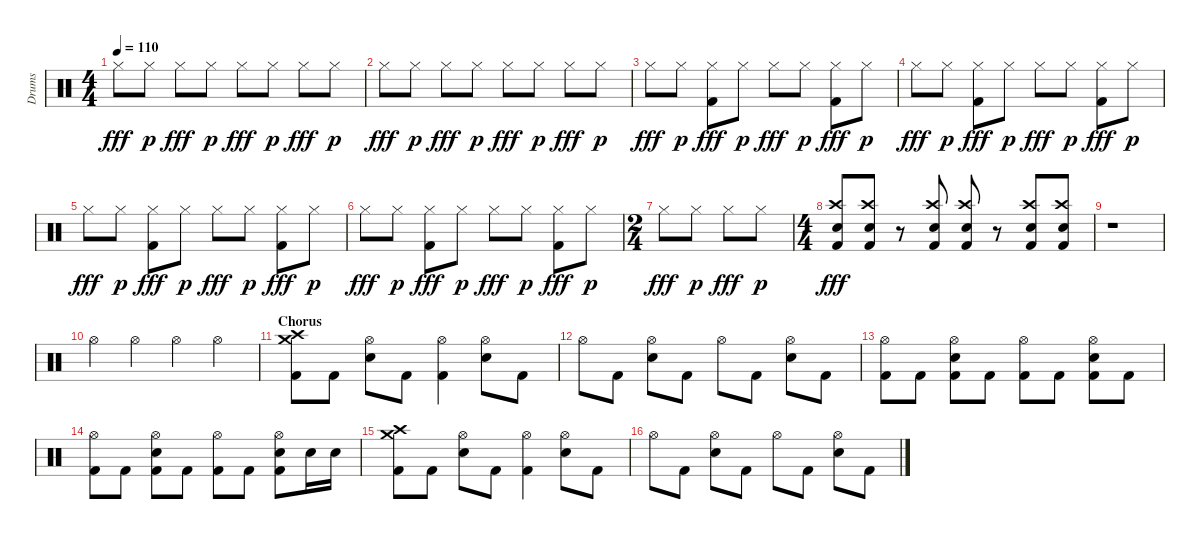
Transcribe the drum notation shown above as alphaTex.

\track ("Drums" "Drums") {instrument percussion}
\staff {score}
\articulation defaults
\ts (4 4)
\tempo 110
\clef neutral
\ks c "Hi-Hat (closed)".8{dy fff} "Hi-Hat (closed)".8{dy p} "Hi-Hat (closed)".8{dy fff} "Hi-Hat (closed)".8{dy p} "Hi-Hat (closed)".8{dy fff} "Hi-Hat (closed)".8{dy p} "Hi-Hat (closed)".8{dy fff} "Hi-Hat (closed)".8{dy p}
|
"Hi-Hat (closed)".8{dy fff} "Hi-Hat (closed)".8{dy p} "Hi-Hat (closed)".8{dy fff} "Hi-Hat (closed)".8{dy p} "Hi-Hat (closed)".8{dy fff} "Hi-Hat (closed)".8{dy p} "Hi-Hat (closed)".8{dy fff} "Hi-Hat (closed)".8{dy p} |
"Hi-Hat (closed)".8{dy fff} "Hi-Hat (closed)".8{dy p} ("Hi-Hat (closed)" "Kick (hit) 2").8{dy fff} "Hi-Hat (closed)".8{dy p} "Hi-Hat (closed)".8{dy fff} "Hi-Hat (closed)".8{dy p} ("Hi-Hat (closed)" "Kick (hit) 2").8{dy fff} "Hi-Hat (closed)".8{dy p} |
"Hi-Hat (closed)".8{dy fff} "Hi-Hat (closed)".8{dy p} ("Hi-Hat (closed)" "Kick (hit) 2").8{dy fff} "Hi-Hat (closed)".8{dy p} "Hi-Hat (closed)".8{dy fff} "Hi-Hat (closed)".8{dy p} ("Hi-Hat (closed)" "Kick (hit) 2").8{dy fff} "Hi-Hat (closed)".8{dy p} |
"Hi-Hat (closed)".8{dy fff} "Hi-Hat (closed)".8{dy p} ("Hi-Hat (closed)" "Kick (hit) 2").8{dy fff} "Hi-Hat (closed)".8{dy p} "Hi-Hat (closed)".8{dy fff} "Hi-Hat (closed)".8{dy p} ("Hi-Hat (closed)" "Kick (hit) 2").8{dy fff} "Hi-Hat (closed)".8{dy p} |
"Hi-Hat (closed)".8{dy fff} "Hi-Hat (closed)".8{dy p} ("Hi-Hat (closed)" "Kick (hit) 2").8{dy fff} "Hi-Hat (closed)".8{dy p} "Hi-Hat (closed)".8{dy fff} "Hi-Hat (closed)".8{dy p} ("Hi-Hat (closed)" "Kick (hit) 2").8{dy fff} "Hi-Hat (closed)".8{dy p} |
\ts (2 4)
"Hi-Hat (closed)".8{dy fff} "Hi-Hat (closed)".8{dy p} "Hi-Hat (closed)".8{dy fff} "Hi-Hat (closed)".8{dy p} |
\ts (4 4)
("Crash high (hit)" "Electric Snare (hit)" "Kick (hit) 2").8{dy fff} ("Crash high (hit)" "Electric Snare (hit)" "Kick (hit) 2").8 r.8 ("Crash high (hit)" "Electric Snare (hit)" "Kick (hit) 2").8 ("Crash high (hit)" "Electric Snare (hit)" "Kick (hit) 2").8 r.8 ("Crash high (hit)" "Electric Snare (hit)" "Kick (hit) 2").8 ("Crash high (hit)" "Electric Snare (hit)" "Kick (hit) 2").8 |
r.1 |
"Hi-Hat (open)".4 "Hi-Hat (open)".4 "Hi-Hat (open)".4 "Hi-Hat (open)".4 |
\section ("" "Chorus")
("Crash high (hit)" "Crash medium (hit)" "Kick (hit) 2").8 "Kick (hit) 2".8 ("Hi-Hat (open)" "Electric Snare (hit)").8 "Kick (hit) 2".8 ("Hi-Hat (open)" "Kick (hit) 2").4 ("Hi-Hat (open)" "Electric Snare (hit)").8 "Kick (hit) 2".8 |
"Hi-Hat (open)".8 "Kick (hit) 2".8 ("Hi-Hat (open)" "Electric Snare (hit)").8 "Kick (hit) 2".8 "Hi-Hat (open)".8 "Kick (hit) 2".8 ("Hi-Hat (open)" "Electric Snare (hit)").8 "Kick (hit) 2".8 |
("Hi-Hat (open)" "Kick (hit) 2").8 "Kick (hit) 2".8 ("Hi-Hat (open)" "Electric Snare (hit)" "Kick (hit) 2").8 "Kick (hit) 2".8 ("Hi-Hat (open)" "Kick (hit) 2").8 "Kick (hit) 2".8 ("Hi-Hat (open)" "Electric Snare (hit)" "Kick (hit) 2").8 "Kick (hit) 2".8 |
("Hi-Hat (open)" "Kick (hit) 2").8 "Kick (hit) 2".8 ("Hi-Hat (open)" "Electric Snare (hit)" "Kick (hit) 2").8 "Kick (hit) 2".8 ("Hi-Hat (open)" "Kick (hit) 2").8 "Kick (hit) 2".8 ("Hi-Hat (open)" "Electric Snare (hit)" "Kick (hit) 2").8 "Electric Snare (hit)".16 "Electric Snare (hit)".16 |
("Crash high (hit)" "Crash medium (hit)" "Kick (hit) 2").8 "Kick (hit) 2".8 ("Hi-Hat (open)" "Electric Snare (hit)").8 "Kick (hit) 2".8 ("Hi-Hat (open)" "Kick (hit) 2").4 ("Hi-Hat (open)" "Electric Snare (hit)").8 "Kick (hit) 2".8 |
"Hi-Hat (open)".8 "Kick (hit) 2".8 ("Hi-Hat (open)" "Electric Snare (hit)").8 "Kick (hit) 2".8 "Hi-Hat (open)".8 "Kick (hit) 2".8 ("Hi-Hat (open)" "Electric Snare (hit)").8 "Kick (hit) 2".8
